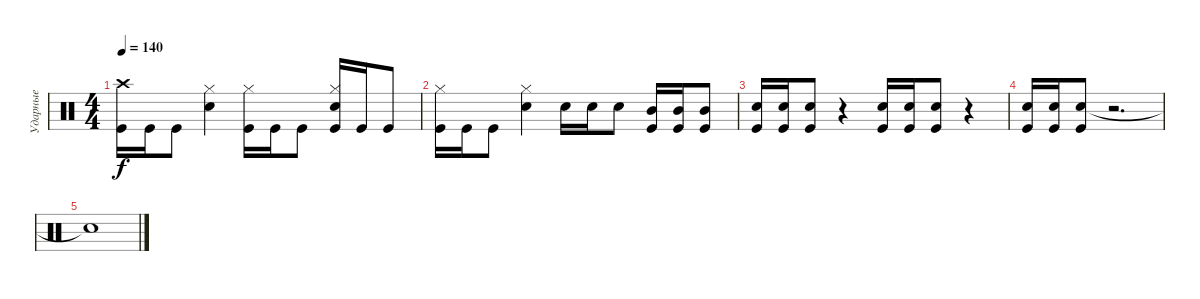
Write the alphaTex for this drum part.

\track ("Ударные" "Ударные") {instrument percussion}
\staff {score}
\articulation defaults
\ts (4 4)
\tempo 140
\clef neutral
\ks c
("Crash high (hit)" "Kick (hit)").16{dy f} "Kick (hit)".16 "Kick (hit)".8 ("Hi-Hat (closed)" "Electric Snare (hit)").4 ("Hi-Hat (closed)" "Kick (hit)").16 "Kick (hit)".16 "Kick (hit)".8 ("Hi-Hat (closed)" "Electric Snare (hit)" "Kick (hit)").16 "Kick (hit)".16 "Kick (hit)".8 |
("Hi-Hat (closed)" "Kick (hit)").16 "Kick (hit)".16 "Kick (hit)".8 ("Hi-Hat (closed)" "Electric Snare (hit)").4 "Electric Snare (hit)".16 "Electric Snare (hit)".16 "Electric Snare (hit)".8 ("Mid Tom (hit)" "Kick (hit)").16 ("Mid Tom (hit)" "Kick (hit)").16 ("Mid Tom (hit)" "Kick (hit)").8 |
("Electric Snare (hit)" "Kick (hit)").16 ("Electric Snare (hit)" "Kick (hit)").16 ("Electric Snare (hit)" "Kick (hit)").8 r.4 ("Electric Snare (hit)" "Kick (hit)").16 ("Electric Snare (hit)" "Kick (hit)").16 ("Electric Snare (hit)" "Kick (hit)").8 r.4 |
("Electric Snare (hit)" "Kick (hit)").16 ("Electric Snare (hit)" "Kick (hit)").16 ("Electric Snare (hit)" "Kick (hit)").8 r.2{d} |
"Snare (hit)"{t}.1
